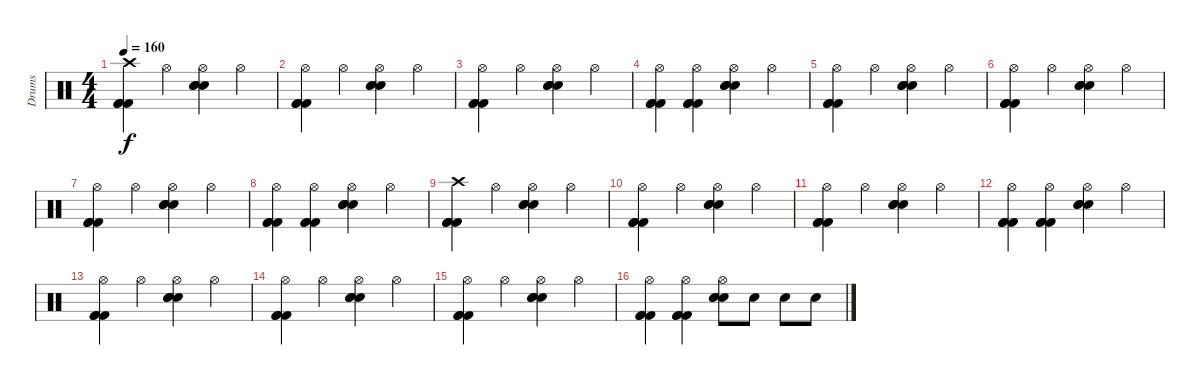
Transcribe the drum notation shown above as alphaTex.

\track ("Drums" "Drums") {instrument percussion}
\staff {score}
\articulation defaults
\ts (4 4)
\tempo 160
\clef neutral
\ks c
("Crash high (hit)" "Kick (hit) 2" "Kick (hit) 2" "Kick (hit) 2").4{dy f} "Hi-Hat (open)".4 ("Hi-Hat (open)" "Electric Snare (hit)" "Electric Snare (hit)" "Electric Snare (hit)").4 "Hi-Hat (open)".4 |
("Hi-Hat (open)" "Kick (hit) 2" "Kick (hit) 2" "Kick (hit) 2").4 "Hi-Hat (open)".4 ("Hi-Hat (open)" "Electric Snare (hit)" "Electric Snare (hit)" "Electric Snare (hit)").4 "Hi-Hat (open)".4 |
("Hi-Hat (open)" "Kick (hit) 2" "Kick (hit) 2" "Kick (hit) 2").4 "Hi-Hat (open)".4 ("Hi-Hat (open)" "Electric Snare (hit)" "Electric Snare (hit)" "Electric Snare (hit)").4 "Hi-Hat (open)".4 |
("Hi-Hat (open)" "Kick (hit) 2" "Kick (hit) 2" "Kick (hit) 2").4 ("Hi-Hat (open)" "Kick (hit) 2" "Kick (hit) 2" "Kick (hit) 2").4 ("Hi-Hat (open)" "Electric Snare (hit)" "Electric Snare (hit)" "Electric Snare (hit)").4 "Hi-Hat (open)".4 |
("Hi-Hat (open)" "Kick (hit) 2" "Kick (hit) 2" "Kick (hit) 2").4 "Hi-Hat (open)".4 ("Hi-Hat (open)" "Electric Snare (hit)" "Electric Snare (hit)" "Electric Snare (hit)").4 "Hi-Hat (open)".4 |
("Hi-Hat (open)" "Kick (hit) 2" "Kick (hit) 2" "Kick (hit) 2").4 "Hi-Hat (open)".4 ("Hi-Hat (open)" "Electric Snare (hit)" "Electric Snare (hit)" "Electric Snare (hit)").4 "Hi-Hat (open)".4 |
("Hi-Hat (open)" "Kick (hit) 2" "Kick (hit) 2" "Kick (hit) 2").4 "Hi-Hat (open)".4 ("Hi-Hat (open)" "Electric Snare (hit)" "Electric Snare (hit)" "Electric Snare (hit)").4 "Hi-Hat (open)".4 |
("Hi-Hat (open)" "Kick (hit) 2" "Kick (hit) 2" "Kick (hit) 2").4 ("Hi-Hat (open)" "Kick (hit) 2" "Kick (hit) 2" "Kick (hit) 2").4 ("Hi-Hat (open)" "Electric Snare (hit)" "Electric Snare (hit)" "Electric Snare (hit)").4 "Hi-Hat (open)".4 |
("Crash high (hit)" "Kick (hit) 2" "Kick (hit) 2" "Kick (hit) 2").4 "Hi-Hat (open)".4 ("Hi-Hat (open)" "Electric Snare (hit)" "Electric Snare (hit)" "Electric Snare (hit)").4 "Hi-Hat (open)".4 |
("Hi-Hat (open)" "Kick (hit) 2" "Kick (hit) 2" "Kick (hit) 2").4 "Hi-Hat (open)".4 ("Hi-Hat (open)" "Electric Snare (hit)" "Electric Snare (hit)" "Electric Snare (hit)").4 "Hi-Hat (open)".4 |
("Hi-Hat (open)" "Kick (hit) 2" "Kick (hit) 2" "Kick (hit) 2").4 "Hi-Hat (open)".4 ("Hi-Hat (open)" "Electric Snare (hit)" "Electric Snare (hit)" "Electric Snare (hit)").4 "Hi-Hat (open)".4 |
("Hi-Hat (open)" "Kick (hit) 2" "Kick (hit) 2" "Kick (hit) 2").4 ("Hi-Hat (open)" "Kick (hit) 2" "Kick (hit) 2" "Kick (hit) 2").4 ("Hi-Hat (open)" "Electric Snare (hit)" "Electric Snare (hit)" "Electric Snare (hit)").4 "Hi-Hat (open)".4 |
("Hi-Hat (open)" "Kick (hit) 2" "Kick (hit) 2" "Kick (hit) 2").4 "Hi-Hat (open)".4 ("Hi-Hat (open)" "Electric Snare (hit)" "Electric Snare (hit)" "Electric Snare (hit)").4 "Hi-Hat (open)".4 |
("Hi-Hat (open)" "Kick (hit) 2" "Kick (hit) 2" "Kick (hit) 2").4 "Hi-Hat (open)".4 ("Hi-Hat (open)" "Electric Snare (hit)" "Electric Snare (hit)" "Electric Snare (hit)").4 "Hi-Hat (open)".4 |
("Hi-Hat (open)" "Kick (hit) 2" "Kick (hit) 2" "Kick (hit) 2").4 "Hi-Hat (open)".4 ("Hi-Hat (open)" "Electric Snare (hit)" "Electric Snare (hit)" "Electric Snare (hit)").4 "Hi-Hat (open)".4 |
("Hi-Hat (open)" "Kick (hit) 2" "Kick (hit) 2" "Kick (hit) 2").4 ("Hi-Hat (open)" "Kick (hit) 2" "Kick (hit) 2" "Kick (hit) 2").4 ("Hi-Hat (open)" "Electric Snare (hit)" "Electric Snare (hit)" "Electric Snare (hit)").8 "Electric Snare (hit)".8 "Electric Snare (hit)".8 "Electric Snare (hit)".8
